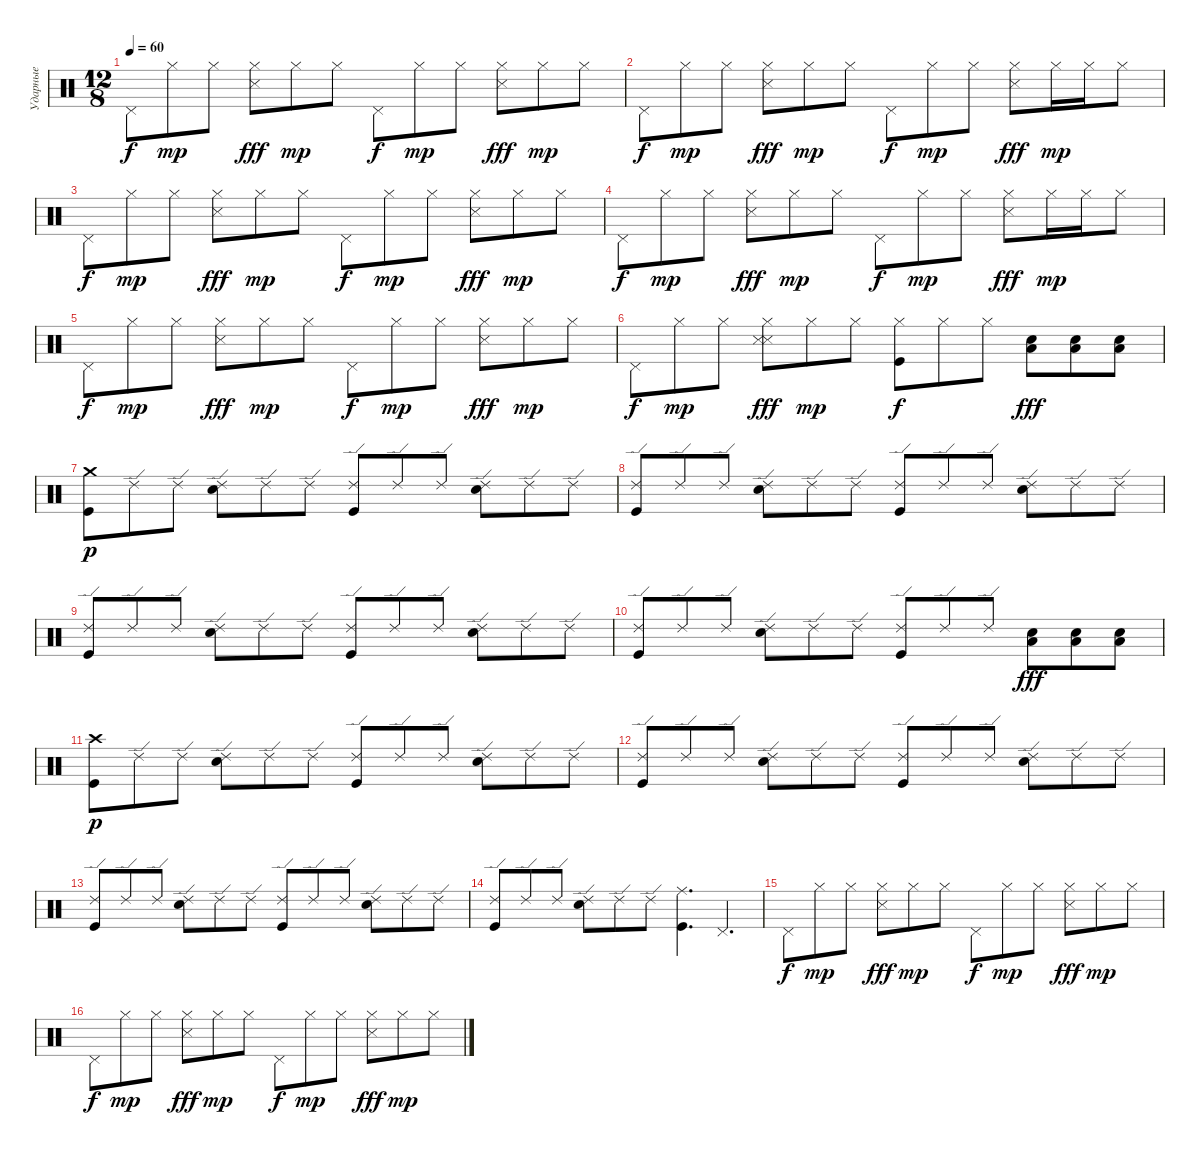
\track ("Ударные" "Ударные") {instrument percussion}
\staff {score}
\articulation defaults
\ts (12 8)
\tempo 60
\clef neutral
\ks c "Pedal Hi-Hat (hit)".8{dy f} "Hi-Hat (closed)".8{dy mp} "Hi-Hat (closed)".8
("Hi-Hat (closed)" "Snare (side stick) 3").8{dy fff} "Hi-Hat (closed)".8{dy mp} "Hi-Hat (closed)".8 "Pedal Hi-Hat (hit)".8{dy f} "Hi-Hat (closed)".8{dy mp} "Hi-Hat (closed)".8 ("Hi-Hat (closed)" "Snare (side stick) 3").8{dy fff} "Hi-Hat (closed)".8{dy mp} "Hi-Hat (closed)".8 |
"Pedal Hi-Hat (hit)".8{dy f} "Hi-Hat (closed)".8{dy mp} "Hi-Hat (closed)".8 ("Hi-Hat (closed)" "Snare (side stick) 3").8{dy fff} "Hi-Hat (closed)".8{dy mp} "Hi-Hat (closed)".8 "Pedal Hi-Hat (hit)".8{dy f} "Hi-Hat (closed)".8{dy mp} "Hi-Hat (closed)".8 ("Hi-Hat (closed)" "Snare (side stick) 3").8{dy fff} "Hi-Hat (closed)".16{dy mp} "Hi-Hat (closed)".16 "Hi-Hat (closed)".8 |
"Pedal Hi-Hat (hit)".8{dy f} "Hi-Hat (closed)".8{dy mp} "Hi-Hat (closed)".8 ("Hi-Hat (closed)" "Snare (side stick) 3").8{dy fff} "Hi-Hat (closed)".8{dy mp} "Hi-Hat (closed)".8 "Pedal Hi-Hat (hit)".8{dy f} "Hi-Hat (closed)".8{dy mp} "Hi-Hat (closed)".8 ("Hi-Hat (closed)" "Snare (side stick) 3").8{dy fff} "Hi-Hat (closed)".8{dy mp} "Hi-Hat (closed)".8 |
"Pedal Hi-Hat (hit)".8{dy f} "Hi-Hat (closed)".8{dy mp} "Hi-Hat (closed)".8 ("Hi-Hat (closed)" "Snare (side stick) 3").8{dy fff} "Hi-Hat (closed)".8{dy mp} "Hi-Hat (closed)".8 "Pedal Hi-Hat (hit)".8{dy f} "Hi-Hat (closed)".8{dy mp} "Hi-Hat (closed)".8 ("Hi-Hat (closed)" "Snare (side stick) 3").8{dy fff} "Hi-Hat (closed)".16{dy mp} "Hi-Hat (closed)".16 "Hi-Hat (closed)".8 |
"Pedal Hi-Hat (hit)".8{dy f} "Hi-Hat (closed)".8{dy mp} "Hi-Hat (closed)".8 ("Hi-Hat (closed)" "Snare (side stick) 3").8{dy fff} "Hi-Hat (closed)".8{dy mp} "Hi-Hat (closed)".8 "Pedal Hi-Hat (hit)".8{dy f} "Hi-Hat (closed)".8{dy mp} "Hi-Hat (closed)".8 ("Hi-Hat (closed)" "Snare (side stick) 3").8{dy fff} "Hi-Hat (closed)".8{dy mp} "Hi-Hat (closed)".8 |
"Pedal Hi-Hat (hit)".8{dy f} "Hi-Hat (closed)".8{dy mp} "Hi-Hat (closed)".8 ("Hi-Hat (closed)" "Snare (side stick) 3" "Metronome (hit)").8{dy fff} "Hi-Hat (closed)".8{dy mp} "Hi-Hat (closed)".8 ("Kick (hit)" "Hi-Hat (closed)").8{dy f} "Hi-Hat (closed)".8 "Hi-Hat (closed)".8 ("Snare (hit) 2" "Low Tom (hit)").8{dy fff volume 12} ("Snare (hit) 2" "Low Tom (hit)").8 ("Snare (hit) 2" "Low Tom (hit)").8 |
("Crash medium (hit)" "Kick (hit)").8{dy p} "Ride (edge) 2".8 "Ride (edge) 2".8 ("Ride (edge) 2" "Snare (hit) 2").8 "Ride (edge) 2".8 "Ride (edge) 2".8 ("Ride (edge) 2" "Kick (hit)").8 "Ride (edge) 2".8 "Ride (edge) 2".8 ("Ride (edge) 2" "Snare (hit) 2").8 "Ride (edge) 2".8 "Ride (edge) 2".8 |
("Ride (edge) 2" "Kick (hit)").8 "Ride (edge) 2".8 "Ride (edge) 2".8 ("Ride (edge) 2" "Snare (hit) 2").8 "Ride (edge) 2".8 "Ride (edge) 2".8 ("Ride (edge) 2" "Kick (hit)").8 "Ride (edge) 2".8 "Ride (edge) 2".8 ("Ride (edge) 2" "Snare (hit) 2").8 "Ride (edge) 2".8 "Ride (edge) 2".8 |
("Ride (edge) 2" "Kick (hit)").8 "Ride (edge) 2".8 "Ride (edge) 2".8 ("Ride (edge) 2" "Snare (hit) 2").8 "Ride (edge) 2".8 "Ride (edge) 2".8 ("Ride (edge) 2" "Kick (hit)").8 "Ride (edge) 2".8 "Ride (edge) 2".8 ("Ride (edge) 2" "Snare (hit) 2").8 "Ride (edge) 2".8 "Ride (edge) 2".8 |
("Ride (edge) 2" "Kick (hit)").8 "Ride (edge) 2".8 "Ride (edge) 2".8 ("Ride (edge) 2" "Snare (hit) 2").8 "Ride (edge) 2".8 "Ride (edge) 2".8 ("Ride (edge) 2" "Kick (hit)").8 "Ride (edge) 2".8 "Ride (edge) 2".8 ("Low Tom (hit)" "Snare (hit) 2").8{dy fff} ("Snare (hit) 2" "Low Tom (hit)").8 ("Snare (hit) 2" "Low Tom (hit)").8 |
("Crash high (hit)" "Kick (hit)").8{dy p} "Ride (edge) 2".8 "Ride (edge) 2".8 ("Ride (edge) 2" "Snare (hit) 2").8 "Ride (edge) 2".8 "Ride (edge) 2".8 ("Ride (edge) 2" "Kick (hit)").8 "Ride (edge) 2".8 "Ride (edge) 2".8 ("Ride (edge) 2" "Snare (hit) 2").8 "Ride (edge) 2".8 "Ride (edge) 2".8 |
("Ride (edge) 2" "Kick (hit)").8 "Ride (edge) 2".8 "Ride (edge) 2".8 ("Ride (edge) 2" "Snare (hit) 2").8 "Ride (edge) 2".8 "Ride (edge) 2".8 ("Ride (edge) 2" "Kick (hit)").8 "Ride (edge) 2".8 "Ride (edge) 2".8 ("Ride (edge) 2" "Snare (hit) 2").8 "Ride (edge) 2".8 "Ride (edge) 2".8 |
("Ride (edge) 2" "Kick (hit)").8 "Ride (edge) 2".8 "Ride (edge) 2".8 ("Ride (edge) 2" "Snare (hit) 2").8 "Ride (edge) 2".8 "Ride (edge) 2".8 ("Ride (edge) 2" "Kick (hit)").8 "Ride (edge) 2".8 "Ride (edge) 2".8 ("Ride (edge) 2" "Snare (hit) 2").8 "Ride (edge) 2".8 "Ride (edge) 2".8 |
("Ride (edge) 2" "Kick (hit)").8 "Ride (edge) 2".8 "Ride (edge) 2".8 ("Ride (edge) 2" "Snare (hit) 2").8 "Ride (edge) 2".8 "Ride (edge) 2".8 ("Kick (hit)" "Ride (middle)").4{d} "Pedal Hi-Hat (hit)".4{d} |
"Pedal Hi-Hat (hit)".8{dy f volume 9} "Hi-Hat (closed)".8{dy mp} "Hi-Hat (closed)".8 ("Hi-Hat (closed)" "Snare (side stick) 3").8{dy fff} "Hi-Hat (closed)".8{dy mp} "Hi-Hat (closed)".8 "Pedal Hi-Hat (hit)".8{dy f} "Hi-Hat (closed)".8{dy mp} "Hi-Hat (closed)".8 ("Hi-Hat (closed)" "Snare (side stick) 3").8{dy fff} "Hi-Hat (closed)".8{dy mp} "Hi-Hat (closed)".8 |
"Pedal Hi-Hat (hit)".8{dy f} "Hi-Hat (closed)".8{dy mp} "Hi-Hat (closed)".8 ("Hi-Hat (closed)" "Snare (side stick) 3").8{dy fff} "Hi-Hat (closed)".8{dy mp} "Hi-Hat (closed)".8 "Pedal Hi-Hat (hit)".8{dy f} "Hi-Hat (closed)".8{dy mp} "Hi-Hat (closed)".8 ("Hi-Hat (closed)" "Snare (side stick) 3").8{dy fff} "Hi-Hat (closed)".8{dy mp} "Hi-Hat (closed)".8
